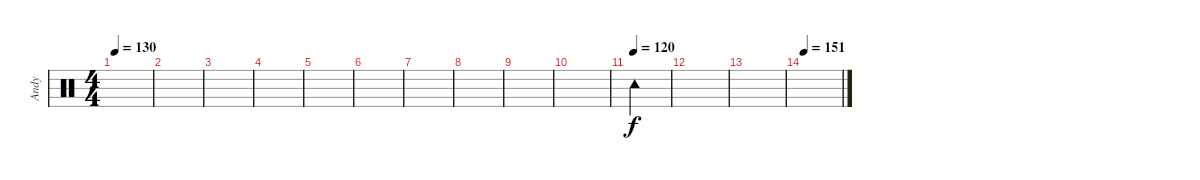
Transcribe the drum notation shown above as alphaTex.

\track ("Andy" "Andy") {instrument percussion}
\staff {score}
\articulation defaults
\ts (4 4)
\tempo 130
\clef neutral
\ks c
|
|
|
|
|
|
|
|
|
|
\tempo (120)
"Tambourine (hit)".4 |
|
|
\tempo 151
